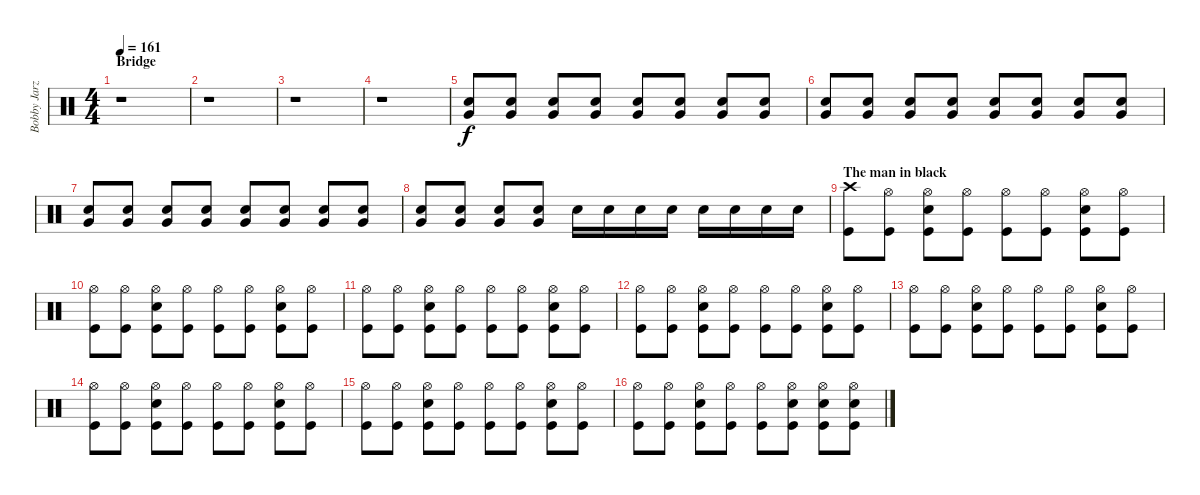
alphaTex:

\track ("Bobby Jarzombek" "Bobby Jarz") {instrument percussion}
\staff {score}
\articulation defaults
\ts (4 4)
\section ("" "Bridge")
\tempo 161
\clef neutral
\ks c
r.1{dy f} |
r.1 |
r.1 |
r.1 |
("Very Low Tom (hit)" "Electric Snare (hit)").8 ("Very Low Tom (hit)" "Electric Snare (hit)").8 ("Very Low Tom (hit)" "Electric Snare (hit)").8 ("Very Low Tom (hit)" "Electric Snare (hit)").8 ("Very Low Tom (hit)" "Electric Snare (hit)").8 ("Very Low Tom (hit)" "Electric Snare (hit)").8 ("Very Low Tom (hit)" "Electric Snare (hit)").8 ("Very Low Tom (hit)" "Electric Snare (hit)").8 |
("Very Low Tom (hit)" "Electric Snare (hit)").8 ("Very Low Tom (hit)" "Electric Snare (hit)").8 ("Very Low Tom (hit)" "Electric Snare (hit)").8 ("Very Low Tom (hit)" "Electric Snare (hit)").8 ("Very Low Tom (hit)" "Electric Snare (hit)").8 ("Very Low Tom (hit)" "Electric Snare (hit)").8 ("Very Low Tom (hit)" "Electric Snare (hit)").8 ("Very Low Tom (hit)" "Electric Snare (hit)").8 |
("Very Low Tom (hit)" "Electric Snare (hit)").8 ("Very Low Tom (hit)" "Electric Snare (hit)").8 ("Very Low Tom (hit)" "Electric Snare (hit)").8 ("Very Low Tom (hit)" "Electric Snare (hit)").8 ("Very Low Tom (hit)" "Electric Snare (hit)").8 ("Very Low Tom (hit)" "Electric Snare (hit)").8 ("Very Low Tom (hit)" "Electric Snare (hit)").8 ("Very Low Tom (hit)" "Electric Snare (hit)").8 |
("Very Low Tom (hit)" "Electric Snare (hit)").8 ("Very Low Tom (hit)" "Electric Snare (hit)").8 ("Very Low Tom (hit)" "Electric Snare (hit)").8 ("Very Low Tom (hit)" "Electric Snare (hit)").8 "Electric Snare (hit)".16 "Electric Snare (hit)".16 "Electric Snare (hit)".16 "Electric Snare (hit)".16 "Electric Snare (hit)".16 "Electric Snare (hit)".16 "Electric Snare (hit)".16 "Electric Snare (hit)".16 |
\section ("" "The man in black")
("Crash high (hit)" "Kick (hit)").8 ("Hi-Hat (open)" "Kick (hit)").8 ("Hi-Hat (open)" "Electric Snare (hit)" "Kick (hit)").8 ("Hi-Hat (open)" "Kick (hit)").8 ("Hi-Hat (open)" "Kick (hit)").8 ("Hi-Hat (open)" "Kick (hit)").8 ("Hi-Hat (open)" "Electric Snare (hit)" "Kick (hit)").8 ("Hi-Hat (open)" "Kick (hit)").8 |
("Hi-Hat (open)" "Kick (hit)").8 ("Hi-Hat (open)" "Kick (hit)").8 ("Hi-Hat (open)" "Electric Snare (hit)" "Kick (hit)").8 ("Hi-Hat (open)" "Kick (hit)").8 ("Hi-Hat (open)" "Kick (hit)").8 ("Hi-Hat (open)" "Kick (hit)").8 ("Hi-Hat (open)" "Electric Snare (hit)" "Kick (hit)").8 ("Hi-Hat (open)" "Kick (hit)").8 |
("Hi-Hat (open)" "Kick (hit)").8 ("Hi-Hat (open)" "Kick (hit)").8 ("Hi-Hat (open)" "Electric Snare (hit)" "Kick (hit)").8 ("Hi-Hat (open)" "Kick (hit)").8 ("Hi-Hat (open)" "Kick (hit)").8 ("Hi-Hat (open)" "Kick (hit)").8 ("Hi-Hat (open)" "Electric Snare (hit)" "Kick (hit)").8 ("Hi-Hat (open)" "Kick (hit)").8 |
("Hi-Hat (open)" "Kick (hit)").8 ("Hi-Hat (open)" "Kick (hit)").8 ("Hi-Hat (open)" "Electric Snare (hit)" "Kick (hit)").8 ("Hi-Hat (open)" "Kick (hit)").8 ("Hi-Hat (open)" "Kick (hit)").8 ("Hi-Hat (open)" "Kick (hit)").8 ("Hi-Hat (open)" "Electric Snare (hit)" "Kick (hit)").8 ("Hi-Hat (open)" "Kick (hit)").8 |
("Hi-Hat (open)" "Kick (hit)").8 ("Hi-Hat (open)" "Kick (hit)").8 ("Hi-Hat (open)" "Electric Snare (hit)" "Kick (hit)").8 ("Hi-Hat (open)" "Kick (hit)").8 ("Hi-Hat (open)" "Kick (hit)").8 ("Hi-Hat (open)" "Kick (hit)").8 ("Hi-Hat (open)" "Electric Snare (hit)" "Kick (hit)").8 ("Hi-Hat (open)" "Kick (hit)").8 |
("Hi-Hat (open)" "Kick (hit)").8 ("Hi-Hat (open)" "Kick (hit)").8 ("Hi-Hat (open)" "Electric Snare (hit)" "Kick (hit)").8 ("Hi-Hat (open)" "Kick (hit)").8 ("Hi-Hat (open)" "Kick (hit)").8 ("Hi-Hat (open)" "Kick (hit)").8 ("Hi-Hat (open)" "Electric Snare (hit)" "Kick (hit)").8 ("Hi-Hat (open)" "Kick (hit)").8 |
("Hi-Hat (open)" "Kick (hit)").8 ("Hi-Hat (open)" "Kick (hit)").8 ("Hi-Hat (open)" "Electric Snare (hit)" "Kick (hit)").8 ("Hi-Hat (open)" "Kick (hit)").8 ("Hi-Hat (open)" "Kick (hit)").8 ("Hi-Hat (open)" "Kick (hit)").8 ("Hi-Hat (open)" "Electric Snare (hit)" "Kick (hit)").8 ("Hi-Hat (open)" "Kick (hit)").8 |
("Hi-Hat (open)" "Kick (hit)").8 ("Hi-Hat (open)" "Kick (hit)").8 ("Hi-Hat (open)" "Electric Snare (hit)" "Kick (hit)").8 ("Hi-Hat (open)" "Kick (hit)").8 ("Hi-Hat (open)" "Kick (hit)").8 ("Hi-Hat (open)" "Electric Snare (hit)" "Kick (hit)").8 ("Hi-Hat (open)" "Electric Snare (hit)" "Kick (hit)").8 ("Hi-Hat (open)" "Electric Snare (hit)" "Kick (hit)").8
